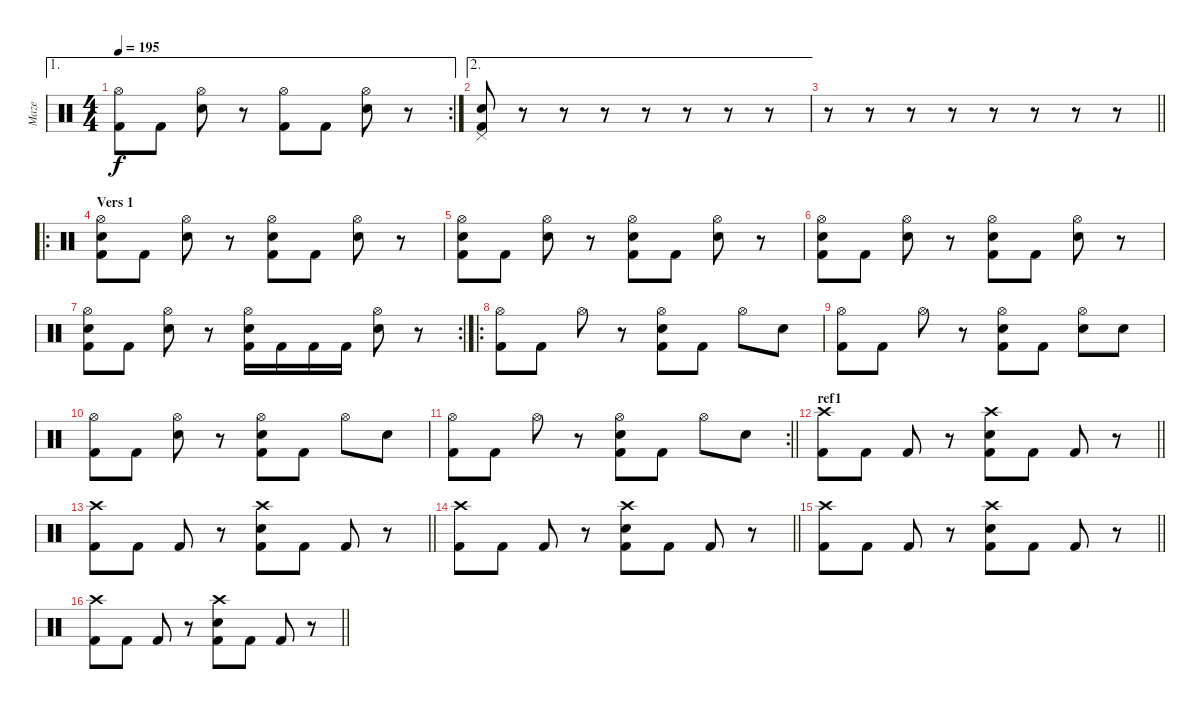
\track ("Maze" "Maze") {instrument percussion}
\staff
\articulation defaults
\ae 1
\rc 2
\ts (4 4)
\tempo 195
\clef neutral
\ks c
("Hi-Hat (open)" "Kick (hit) 2").8{dy f} "Kick (hit) 2".8 ("Snare (hit) 2" "Hi-Hat (open)").8 r.8 ("Hi-Hat (open)" "Kick (hit) 2").8 "Kick (hit) 2".8 ("Snare (hit) 2" "Hi-Hat (open)").8 r.8 |
\ae 2
("Electric Snare (hit)" "Pedal Hi-Hat (hit)" "Kick (hit) 2").8 r.8 r.8 r.8 r.8 r.8 r.8 r.8 |
\barLineRight lightlight
r.8 r.8 r.8 r.8 r.8 r.8 r.8 r.8 |
\ro
\section ("" "Vers 1")
("Snare (hit) 2" "Hi-Hat (open)" "Kick (hit) 2").8 "Kick (hit) 2".8 ("Snare (hit) 2" "Hi-Hat (open)").8 r.8 ("Snare (hit) 2" "Hi-Hat (open)" "Kick (hit) 2").8 "Kick (hit) 2".8 ("Snare (hit) 2" "Hi-Hat (open)").8 r.8 |
("Snare (hit) 2" "Hi-Hat (open)" "Kick (hit) 2").8 "Kick (hit) 2".8 ("Snare (hit) 2" "Hi-Hat (open)").8 r.8 ("Snare (hit) 2" "Hi-Hat (open)" "Kick (hit) 2").8 "Kick (hit) 2".8 ("Snare (hit) 2" "Hi-Hat (open)").8 r.8 |
("Snare (hit) 2" "Hi-Hat (open)" "Kick (hit) 2").8 "Kick (hit) 2".8 ("Snare (hit) 2" "Hi-Hat (open)").8 r.8 ("Snare (hit) 2" "Hi-Hat (open)" "Kick (hit) 2").8 "Kick (hit) 2".8 ("Snare (hit) 2" "Hi-Hat (open)").8 r.8 |
\rc 2
("Snare (hit) 2" "Hi-Hat (open)" "Kick (hit) 2").8 "Kick (hit) 2".8 ("Snare (hit) 2" "Hi-Hat (open)").8 r.8 ("Snare (hit) 2" "Hi-Hat (open)" "Kick (hit) 2").16 "Kick (hit) 2".16 "Kick (hit) 2".16 "Kick (hit) 2".16 ("Snare (hit) 2" "Hi-Hat (open)").8 r.8 |
\ro
("Hi-Hat (open)" "Kick (hit) 2").8 "Kick (hit) 2".8 "Hi-Hat (open)".8 r.8 ("Snare (hit) 2" "Hi-Hat (open)" "Kick (hit) 2").8 "Kick (hit) 2".8 "Hi-Hat (open)".8 "Snare (hit) 2".8 |
("Hi-Hat (open)" "Kick (hit) 2").8 "Kick (hit) 2".8 "Hi-Hat (open)".8 r.8 ("Snare (hit) 2" "Hi-Hat (open)" "Kick (hit) 2").8 "Kick (hit) 2".8 ("Snare (hit) 2" "Hi-Hat (open)").8 "Snare (hit) 2".8 |
("Hi-Hat (open)" "Kick (hit) 2").8 "Kick (hit) 2".8 ("Snare (hit) 2" "Hi-Hat (open)").8 r.8 ("Snare (hit) 2" "Hi-Hat (open)" "Kick (hit) 2").8 "Kick (hit) 2".8 "Hi-Hat (open)".8 "Snare (hit) 2".8 |
\rc 2
\barLineRight lightlight
("Hi-Hat (open)" "Kick (hit) 2").8 "Kick (hit) 2".8 "Hi-Hat (open)".8 r.8 ("Snare (hit) 2" "Hi-Hat (open)" "Kick (hit) 2").8 "Kick (hit) 2".8 "Hi-Hat (open)".8 "Snare (hit) 2".8 |
\section ("" "ref1")
\barLineRight lightlight
("Crash high (hit)" "Kick (hit) 2").8 "Kick (hit) 2".8 "Kick (hit) 2".8 r.8 ("Snare (hit) 2" "Crash high (hit)" "Kick (hit) 2").8 "Kick (hit) 2".8 "Kick (hit) 2".8 r.8 |
\barLineRight lightlight
("Crash high (hit)" "Kick (hit) 2").8 "Kick (hit) 2".8 "Kick (hit) 2".8 r.8 ("Snare (hit) 2" "Crash high (hit)" "Kick (hit) 2").8 "Kick (hit) 2".8 "Kick (hit) 2".8 r.8 |
\barLineRight lightlight
("Crash high (hit)" "Kick (hit) 2").8 "Kick (hit) 2".8 "Kick (hit) 2".8 r.8 ("Snare (hit) 2" "Crash high (hit)" "Kick (hit) 2").8 "Kick (hit) 2".8 "Kick (hit) 2".8 r.8 |
\barLineRight lightlight
("Crash high (hit)" "Kick (hit) 2").8 "Kick (hit) 2".8 "Kick (hit) 2".8 r.8 ("Snare (hit) 2" "Crash high (hit)" "Kick (hit) 2").8 "Kick (hit) 2".8 "Kick (hit) 2".8 r.8 |
\barLineRight lightlight
("Crash high (hit)" "Kick (hit) 2").8 "Kick (hit) 2".8 "Kick (hit) 2".8 r.8 ("Snare (hit) 2" "Crash high (hit)" "Kick (hit) 2").8 "Kick (hit) 2".8 "Kick (hit) 2".8 r.8
